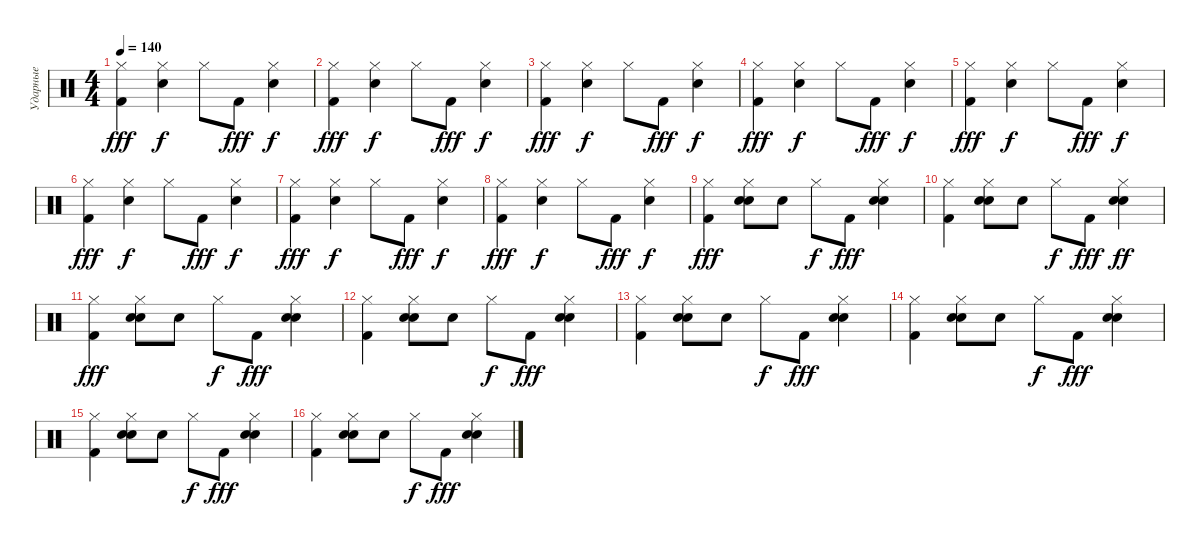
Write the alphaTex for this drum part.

\track ("Ударные" "Ударные") {instrument percussion}
\staff {score}
\articulation defaults
\ts (4 4)
\tempo 140
\clef neutral
\ks c
("Hi-Hat (closed)" "Kick (hit) 2").4{dy fff} ("Hi-Hat (closed)" "Snare (hit) 2").4{dy f} "Hi-Hat (closed)".8 "Kick (hit) 2".8{dy fff} ("Hi-Hat (closed)" "Snare (hit) 2").4{dy f} |
("Hi-Hat (closed)" "Kick (hit) 2").4{dy fff} ("Hi-Hat (closed)" "Snare (hit) 2").4{dy f} "Hi-Hat (closed)".8 "Kick (hit) 2".8{dy fff} ("Hi-Hat (closed)" "Snare (hit) 2").4{dy f} |
("Hi-Hat (closed)" "Kick (hit) 2").4{dy fff} ("Hi-Hat (closed)" "Snare (hit) 2").4{dy f} "Hi-Hat (closed)".8 "Kick (hit) 2".8{dy fff} ("Hi-Hat (closed)" "Snare (hit) 2").4{dy f} |
("Hi-Hat (closed)" "Kick (hit) 2").4{dy fff} ("Hi-Hat (closed)" "Snare (hit) 2").4{dy f} "Hi-Hat (closed)".8 "Kick (hit) 2".8{dy fff} ("Hi-Hat (closed)" "Snare (hit) 2").4{dy f} |
("Hi-Hat (closed)" "Kick (hit) 2").4{dy fff} ("Hi-Hat (closed)" "Snare (hit) 2").4{dy f} "Hi-Hat (closed)".8 "Kick (hit) 2".8{dy fff} ("Hi-Hat (closed)" "Snare (hit) 2").4{dy f} |
("Hi-Hat (closed)" "Kick (hit) 2").4{dy fff} ("Hi-Hat (closed)" "Snare (hit) 2").4{dy f} "Hi-Hat (closed)".8 "Kick (hit) 2".8{dy fff} ("Hi-Hat (closed)" "Snare (hit) 2").4{dy f} |
("Hi-Hat (closed)" "Kick (hit) 2").4{dy fff} ("Hi-Hat (closed)" "Snare (hit) 2").4{dy f} "Hi-Hat (closed)".8 "Kick (hit) 2".8{dy fff} ("Hi-Hat (closed)" "Snare (hit) 2").4{dy f} |
("Hi-Hat (closed)" "Kick (hit) 2").4{dy fff} ("Hi-Hat (closed)" "Snare (hit) 2").4{dy f} "Hi-Hat (closed)".8 "Kick (hit) 2".8{dy fff} ("Hi-Hat (closed)" "Snare (hit) 2").4{dy f} |
("Hi-Hat (closed)" "Kick (hit) 2").4{dy fff} ("Hi-Hat (closed)" "Hand Clap (hit)" "Snare (hit) 2").8 "Hand Clap (hit)".8 "Hi-Hat (closed)".8{dy f} "Kick (hit) 2".8{dy fff} ("Hi-Hat (closed)" "Hand Clap (hit)" "Snare (hit) 2").4 |
("Hi-Hat (closed)" "Kick (hit) 2").4 ("Hi-Hat (closed)" "Hand Clap (hit)" "Snare (hit) 2").8 "Hand Clap (hit)".8 "Hi-Hat (closed)".8{dy f} "Kick (hit) 2".8{dy fff} ("Hi-Hat (closed)" "Hand Clap (hit)" "Snare (hit) 2").4{dy ff} |
("Hi-Hat (closed)" "Kick (hit) 2").4{dy fff} ("Hi-Hat (closed)" "Hand Clap (hit)" "Snare (hit) 2").8 "Hand Clap (hit)".8 "Hi-Hat (closed)".8{dy f} "Kick (hit) 2".8{dy fff} ("Hi-Hat (closed)" "Hand Clap (hit)" "Snare (hit) 2").4 |
("Hi-Hat (closed)" "Kick (hit) 2").4 ("Hi-Hat (closed)" "Hand Clap (hit)" "Snare (hit) 2").8 "Hand Clap (hit)".8 "Hi-Hat (closed)".8{dy f} "Kick (hit) 2".8{dy fff} ("Hi-Hat (closed)" "Hand Clap (hit)" "Snare (hit) 2").4 |
("Hi-Hat (closed)" "Kick (hit) 2").4 ("Hi-Hat (closed)" "Hand Clap (hit)" "Snare (hit) 2").8 "Hand Clap (hit)".8 "Hi-Hat (closed)".8{dy f} "Kick (hit) 2".8{dy fff} ("Hi-Hat (closed)" "Hand Clap (hit)" "Snare (hit) 2").4 |
("Hi-Hat (closed)" "Kick (hit) 2").4 ("Hi-Hat (closed)" "Hand Clap (hit)" "Snare (hit) 2").8 "Hand Clap (hit)".8 "Hi-Hat (closed)".8{dy f} "Kick (hit) 2".8{dy fff} ("Hi-Hat (closed)" "Hand Clap (hit)" "Snare (hit) 2").4 |
("Hi-Hat (closed)" "Kick (hit) 2").4 ("Hi-Hat (closed)" "Hand Clap (hit)" "Snare (hit) 2").8 "Hand Clap (hit)".8 "Hi-Hat (closed)".8{dy f} "Kick (hit) 2".8{dy fff} ("Hi-Hat (closed)" "Hand Clap (hit)" "Snare (hit) 2").4 |
("Hi-Hat (closed)" "Kick (hit) 2").4 ("Hi-Hat (closed)" "Hand Clap (hit)" "Snare (hit) 2").8 "Hand Clap (hit)".8 "Hi-Hat (closed)".8{dy f} "Kick (hit) 2".8{dy fff} ("Hi-Hat (closed)" "Hand Clap (hit)" "Snare (hit) 2").4
